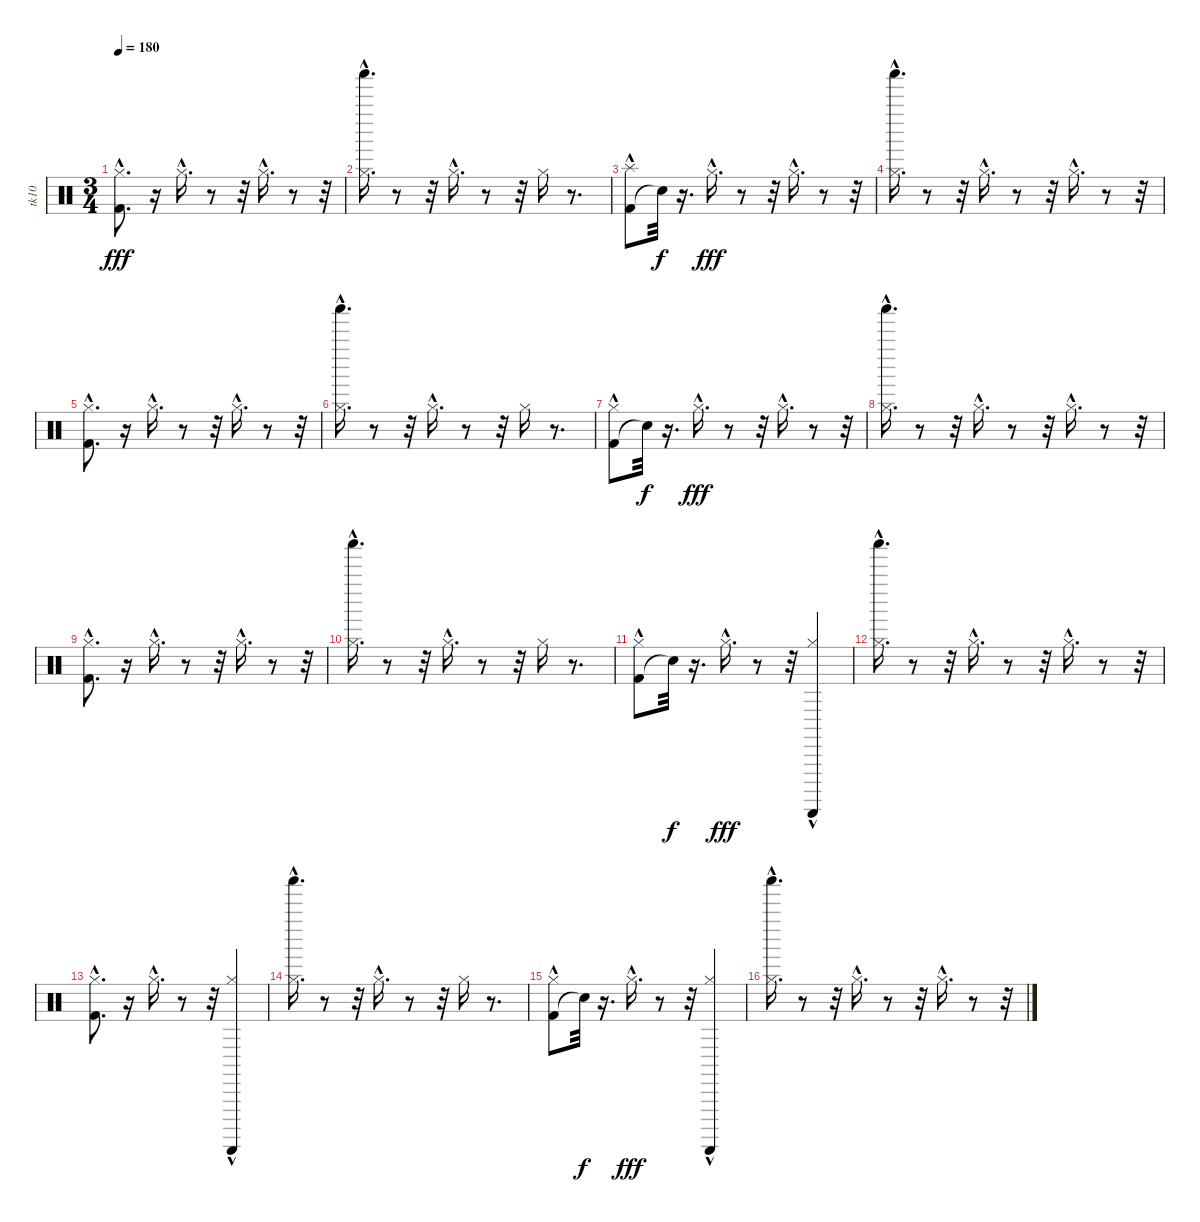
\track ("tk10" "tk10") {instrument percussion}
\staff {score}
\articulation defaults
\ts (3 4)
\tempo 180
\clef neutral
\ks c
("Kick (hit) 2"{hac} "Hi-Hat (closed)"{hac}).8{d dy fff} r.16 "Hi-Hat (closed)"{hac}.16{d} r.8 r.32 "Hi-Hat (closed)"{hac}.16{d} r.8 r.32 |
("Shaker (hit)"{hac} "Hi-Hat (closed)"{hac}).16{d} r.8 r.32 "Hi-Hat (closed)"{hac}.16{d} r.8 r.32 "Hi-Hat (closed)".16 r.8{d} |
("Kick (hit) 2" "Splash (hit)"{hac}).8 "Snare (hit)"{t}.32{dy f} r.16{d} "Hi-Hat (closed)"{hac}.16{d dy fff} r.8 r.32 "Hi-Hat (closed)"{hac}.16{d} r.8 r.32 |
("Shaker (hit)"{hac} "Hi-Hat (closed)"{hac}).16{d} r.8 r.32 "Hi-Hat (closed)"{hac}.16{d} r.8 r.32 "Hi-Hat (closed)"{hac}.16{d} r.8 r.32 |
("Kick (hit) 2"{hac} "Hi-Hat (closed)"{hac}).8{d} r.16 "Hi-Hat (closed)"{hac}.16{d} r.8 r.32 "Hi-Hat (closed)"{hac}.16{d} r.8 r.32 |
("Shaker (hit)"{hac} "Hi-Hat (closed)"{hac}).16{d} r.8 r.32 "Hi-Hat (closed)"{hac}.16{d} r.8 r.32 "Hi-Hat (closed)".16 r.8{d} |
("Kick (hit) 2" "Hi-Hat (closed)"{hac}).8 "Snare (hit)"{t}.32{dy f} r.16{d} "Hi-Hat (closed)"{hac}.16{d dy fff} r.8 r.32 "Hi-Hat (closed)"{hac}.16{d} r.8 r.32 |
("Shaker (hit)"{hac} "Hi-Hat (closed)"{hac}).16{d} r.8 r.32 "Hi-Hat (closed)"{hac}.16{d} r.8 r.32 "Hi-Hat (closed)"{hac}.16{d} r.8 r.32 |
("Kick (hit) 2"{hac} "Hi-Hat (closed)"{hac}).8{d} r.16 "Hi-Hat (closed)"{hac}.16{d} r.8 r.32 "Hi-Hat (closed)"{hac}.16{d} r.8 r.32 |
("Shaker (hit)"{hac} "Hi-Hat (closed)"{hac}).16{d} r.8 r.32 "Hi-Hat (closed)"{hac}.16{d} r.8 r.32 "Hi-Hat (closed)".16 r.8{d} |
("Kick (hit) 2" "Hi-Hat (closed)"{hac}).8 "Snare (hit)"{t}.32{dy f} r.16{d} "Hi-Hat (closed)"{hac}.16{d dy fff} r.8 r.32 ("Guiro (scrap-return)"{hac} "Hi-Hat (closed)"{hac}).4 |
("Shaker (hit)"{hac} "Hi-Hat (closed)"{hac}).16{d} r.8 r.32 "Hi-Hat (closed)"{hac}.16{d} r.8 r.32 "Hi-Hat (closed)"{hac}.16{d} r.8 r.32 |
("Kick (hit) 2"{hac} "Hi-Hat (closed)"{hac}).8{d} r.16 "Hi-Hat (closed)"{hac}.16{d} r.8 r.32 ("Guiro (scrap-return)" "Hi-Hat (closed)"{hac}).4 |
("Shaker (hit)"{hac} "Hi-Hat (closed)"{hac}).16{d} r.8 r.32 "Hi-Hat (closed)"{hac}.16{d} r.8 r.32 "Hi-Hat (closed)".16 r.8{d} |
("Kick (hit) 2" "Hi-Hat (closed)"{hac}).8 "Snare (hit)"{t}.32{dy f} r.16{d} "Hi-Hat (closed)"{hac}.16{d dy fff} r.8 r.32 ("Guiro (scrap-return)" "Hi-Hat (closed)"{hac}).4 |
("Shaker (hit)"{hac} "Hi-Hat (closed)"{hac}).16{d} r.8 r.32 "Hi-Hat (closed)"{hac}.16{d} r.8 r.32 "Hi-Hat (closed)"{hac}.16{d} r.8 r.32
